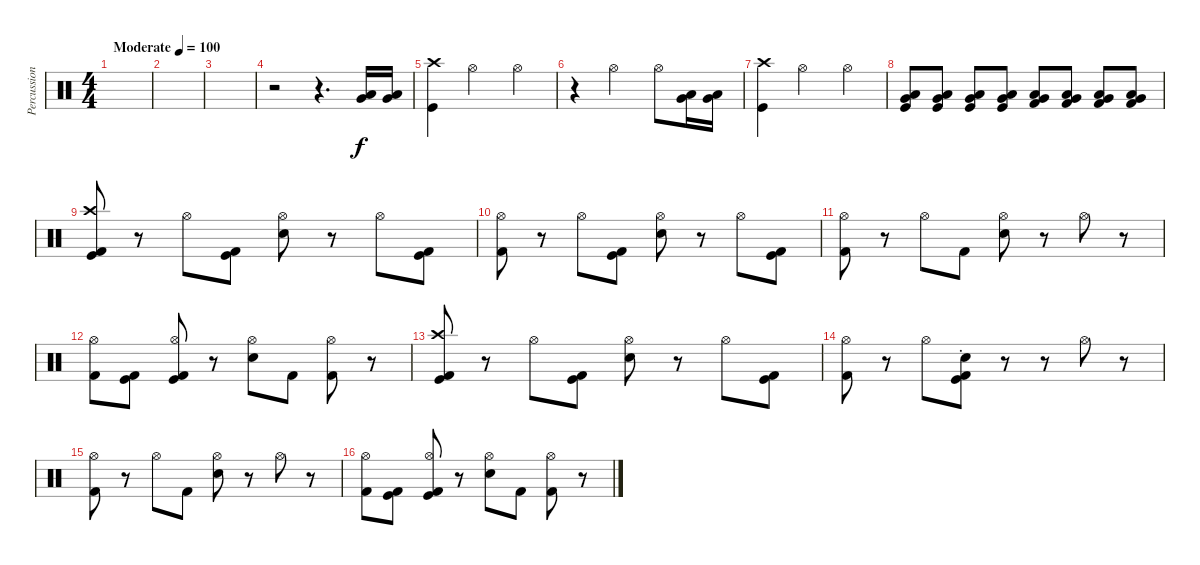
\track ("Percussions" "Percussion") {instrument percussion}
\staff {score}
\articulation defaults
\ts (4 4)
\tempo (100 "Moderate")
\clef neutral
\ks c
|
|
|
r.2 r.4{d} ("Very Low Tom (hit)" "Low Tom (hit)").16 ("Very Low Tom (hit)" "Low Tom (hit)").16 |
("Kick (hit)" "Crash high (hit)").4 "Hi-Hat (open)".2 "Hi-Hat (open)".4 |
r.4 "Hi-Hat (open)".2 "Hi-Hat (open)".8 ("Very Low Tom (hit)" "Low Tom (hit)").16 ("Very Low Tom (hit)" "Low Tom (hit)").16 |
("Kick (hit)" "Crash high (hit)").4 "Hi-Hat (open)".2 "Hi-Hat (open)".4 |
("Kick (hit)" "Very Low Tom (hit)" "Low Tom (hit)").8 ("Kick (hit)" "Very Low Tom (hit)" "Low Tom (hit)").8 ("Kick (hit)" "Very Low Tom (hit)" "Low Tom (hit)").8 ("Kick (hit)" "Very Low Tom (hit)" "Low Tom (hit)").8 ("Kick (hit) 2" "Very Low Tom (hit)" "Low Floor Tom (hit)").8 ("Kick (hit) 2" "Very Low Tom (hit)" "Low Floor Tom (hit)").8 ("Kick (hit) 2" "Very Low Tom (hit)" "Low Floor Tom (hit)").8 ("Kick (hit) 2" "Very Low Tom (hit)" "Low Floor Tom (hit)").8 |
("Kick (hit) 2" "Kick (hit)" "Crash high (hit)").8 r.8 "Hi-Hat (open)".8 ("Kick (hit) 2" "Kick (hit)").8 ("Hi-Hat (open)" "Electric Snare (hit)").8 r.8 "Hi-Hat (open)".8 ("Kick (hit) 2" "Kick (hit)").8 |
("Kick (hit) 2" "Hi-Hat (open)").8 r.8 "Hi-Hat (open)".8 ("Kick (hit) 2" "Kick (hit)").8 ("Hi-Hat (open)" "Electric Snare (hit)").8 r.8 "Hi-Hat (open)".8 ("Kick (hit) 2" "Kick (hit)").8 |
("Kick (hit) 2" "Hi-Hat (open)").8 r.8 "Hi-Hat (open)".8 "Kick (hit) 2".8 ("Hi-Hat (open)" "Electric Snare (hit)").8 r.8 "Hi-Hat (open)".8 r.8 |
("Kick (hit) 2" "Hi-Hat (open)").8 ("Kick (hit) 2" "Kick (hit)").8 ("Kick (hit) 2" "Kick (hit)" "Hi-Hat (open)").8 r.8 ("Electric Snare (hit)" "Hi-Hat (open)").8 "Kick (hit) 2".8 ("Kick (hit) 2" "Hi-Hat (open)").8 r.8 |
("Kick (hit) 2" "Kick (hit)" "Crash high (hit)").8 r.8 "Hi-Hat (open)".8 ("Kick (hit) 2" "Kick (hit)").8 ("Hi-Hat (open)" "Electric Snare (hit)").8 r.8 "Hi-Hat (open)".8 ("Kick (hit) 2" "Kick (hit)").8 |
("Kick (hit) 2" "Hi-Hat (open)").8 r.8 "Hi-Hat (open)".8 ("Kick (hit) 2"{st} "Kick (hit)"{st} "Electric Snare (hit)"{st}).8 r.8 r.8 "Hi-Hat (open)".8 r.8 |
("Kick (hit) 2" "Hi-Hat (open)").8 r.8 "Hi-Hat (open)".8 "Kick (hit) 2".8 ("Hi-Hat (open)" "Electric Snare (hit)").8 r.8 "Hi-Hat (open)".8 r.8 |
("Kick (hit) 2" "Hi-Hat (open)").8 ("Kick (hit) 2" "Kick (hit)").8 ("Kick (hit) 2" "Kick (hit)" "Hi-Hat (open)").8 r.8 ("Electric Snare (hit)" "Hi-Hat (open)").8 "Kick (hit) 2".8 ("Kick (hit) 2" "Hi-Hat (open)").8 r.8
